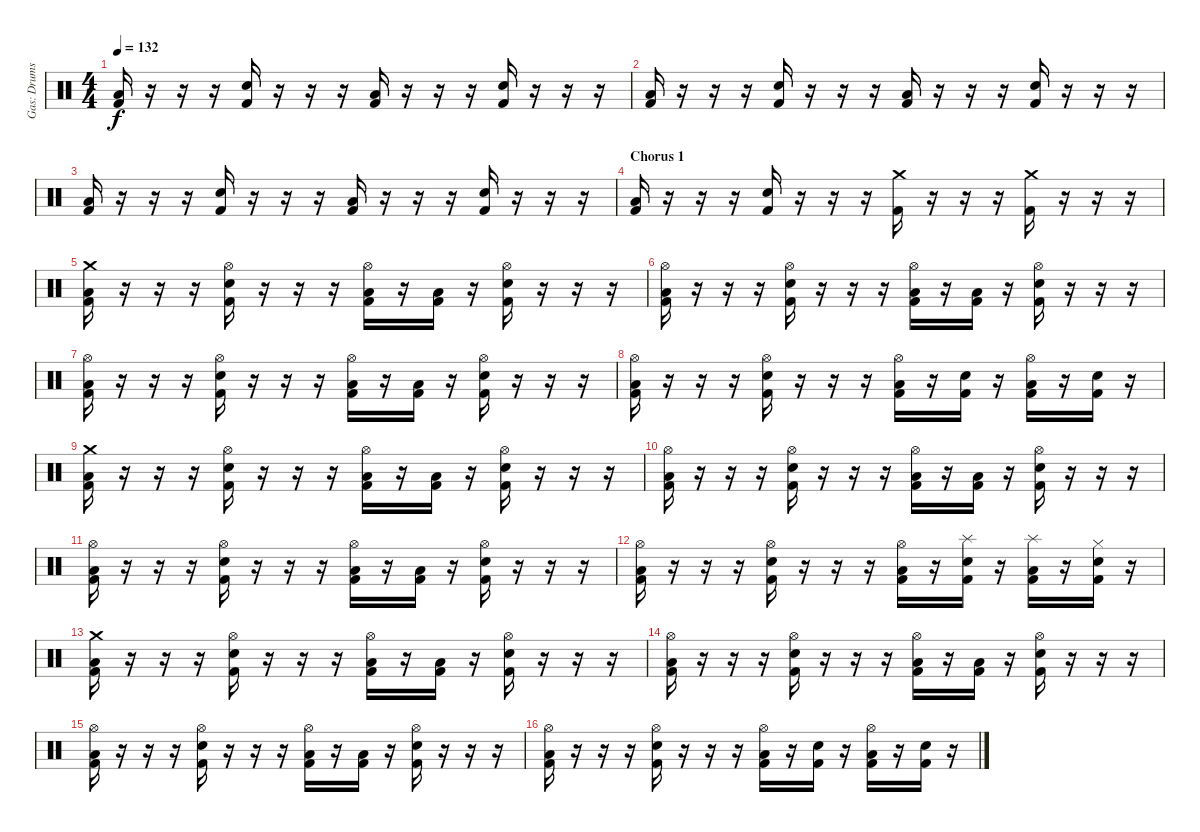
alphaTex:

\track ("Gas: Drums" "Gas: Drums") {instrument percussion}
\staff {score}
\articulation defaults
\ts (4 4)
\tempo 132
\clef neutral
\ks c
("Low Tom (hit)" "Kick (hit) 2").16{dy f} r.16 r.16 r.16 ("Electric Snare (hit)" "Kick (hit) 2").16 r.16 r.16 r.16 ("Low Tom (hit)" "Kick (hit) 2").16 r.16 r.16 r.16 ("Electric Snare (hit)" "Kick (hit) 2").16 r.16 r.16 r.16 |
("Low Tom (hit)" "Kick (hit) 2").16 r.16 r.16 r.16 ("Electric Snare (hit)" "Kick (hit) 2").16 r.16 r.16 r.16 ("Low Tom (hit)" "Kick (hit) 2").16 r.16 r.16 r.16 ("Electric Snare (hit)" "Kick (hit) 2").16 r.16 r.16 r.16 |
("Low Tom (hit)" "Kick (hit) 2").16 r.16 r.16 r.16 ("Electric Snare (hit)" "Kick (hit) 2").16 r.16 r.16 r.16 ("Low Tom (hit)" "Kick (hit) 2").16 r.16 r.16 r.16 ("Electric Snare (hit)" "Kick (hit) 2").16 r.16 r.16 r.16 |
\section ("" "Chorus 1")
("Low Tom (hit)" "Kick (hit) 2").16 r.16 r.16 r.16 ("Electric Snare (hit)" "Kick (hit) 2").16 r.16 r.16 r.16 ("Crash medium (hit)" "Kick (hit) 2").16 r.16 r.16 r.16 ("Crash medium (hit)" "Kick (hit) 2").16 r.16 r.16 r.16 |
("Crash medium (hit)" "Low Tom (hit)" "Kick (hit) 2").16 r.16 r.16 r.16 ("Hi-Hat (open)" "Electric Snare (hit)" "Kick (hit) 2").16 r.16 r.16 r.16 ("Hi-Hat (open)" "Low Tom (hit)" "Kick (hit) 2").16 r.16 ("Low Tom (hit)" "Kick (hit) 2").16 r.16 ("Hi-Hat (open)" "Electric Snare (hit)" "Kick (hit) 2").16 r.16 r.16 r.16 |
("Hi-Hat (open)" "Low Tom (hit)" "Kick (hit) 2").16 r.16 r.16 r.16 ("Hi-Hat (open)" "Electric Snare (hit)" "Kick (hit) 2").16 r.16 r.16 r.16 ("Hi-Hat (open)" "Low Tom (hit)" "Kick (hit) 2").16 r.16 ("Low Tom (hit)" "Kick (hit) 2").16 r.16 ("Hi-Hat (open)" "Electric Snare (hit)" "Kick (hit) 2").16 r.16 r.16 r.16 |
("Hi-Hat (open)" "Low Tom (hit)" "Kick (hit) 2").16 r.16 r.16 r.16 ("Hi-Hat (open)" "Electric Snare (hit)" "Kick (hit) 2").16 r.16 r.16 r.16 ("Hi-Hat (open)" "Low Tom (hit)" "Kick (hit) 2").16 r.16 ("Low Tom (hit)" "Kick (hit) 2").16 r.16 ("Hi-Hat (open)" "Electric Snare (hit)" "Kick (hit) 2").16 r.16 r.16 r.16 |
("Hi-Hat (open)" "Low Tom (hit)" "Kick (hit) 2").16 r.16 r.16 r.16 ("Hi-Hat (open)" "Electric Snare (hit)" "Kick (hit) 2").16 r.16 r.16 r.16 ("Hi-Hat (open)" "Low Tom (hit)" "Kick (hit) 2").16 r.16 ("Electric Snare (hit)" "Kick (hit) 2").16 r.16 ("Hi-Hat (open)" "Low Tom (hit)" "Kick (hit) 2").16 r.16 ("Electric Snare (hit)" "Kick (hit) 2").16 r.16 |
("Crash medium (hit)" "Low Tom (hit)" "Kick (hit) 2").16 r.16 r.16 r.16 ("Hi-Hat (open)" "Electric Snare (hit)" "Kick (hit) 2").16 r.16 r.16 r.16 ("Hi-Hat (open)" "Low Tom (hit)" "Kick (hit) 2").16 r.16 ("Low Tom (hit)" "Kick (hit) 2").16 r.16 ("Hi-Hat (open)" "Electric Snare (hit)" "Kick (hit) 2").16 r.16 r.16 r.16 |
("Hi-Hat (open)" "Low Tom (hit)" "Kick (hit) 2").16 r.16 r.16 r.16 ("Hi-Hat (open)" "Electric Snare (hit)" "Kick (hit) 2").16 r.16 r.16 r.16 ("Hi-Hat (open)" "Low Tom (hit)" "Kick (hit) 2").16 r.16 ("Low Tom (hit)" "Kick (hit) 2").16 r.16 ("Hi-Hat (open)" "Electric Snare (hit)" "Kick (hit) 2").16 r.16 r.16 r.16 |
("Hi-Hat (open)" "Low Tom (hit)" "Kick (hit) 2").16 r.16 r.16 r.16 ("Hi-Hat (open)" "Electric Snare (hit)" "Kick (hit) 2").16 r.16 r.16 r.16 ("Hi-Hat (open)" "Low Tom (hit)" "Kick (hit) 2").16 r.16 ("Low Tom (hit)" "Kick (hit) 2").16 r.16 ("Hi-Hat (open)" "Electric Snare (hit)" "Kick (hit) 2").16 r.16 r.16 r.16 |
("Hi-Hat (open)" "Low Tom (hit)" "Kick (hit) 2").16 r.16 r.16 r.16 ("Hi-Hat (open)" "Electric Snare (hit)" "Kick (hit) 2").16 r.16 r.16 r.16 ("Hi-Hat (open)" "Low Tom (hit)" "Kick (hit) 2").16 r.16 ("Splash (hit)" "Electric Snare (hit)" "Kick (hit) 2").16 r.16 ("Splash (hit)" "Low Tom (hit)" "Kick (hit) 2").16 r.16 ("Hi-Hat (closed)" "Electric Snare (hit)" "Kick (hit) 2").16 r.16 |
("Crash medium (hit)" "Low Tom (hit)" "Kick (hit) 2").16 r.16 r.16 r.16 ("Hi-Hat (open)" "Electric Snare (hit)" "Kick (hit) 2").16 r.16 r.16 r.16 ("Hi-Hat (open)" "Low Tom (hit)" "Kick (hit) 2").16 r.16 ("Low Tom (hit)" "Kick (hit) 2").16 r.16 ("Hi-Hat (open)" "Electric Snare (hit)" "Kick (hit) 2").16 r.16 r.16 r.16 |
("Hi-Hat (open)" "Low Tom (hit)" "Kick (hit) 2").16 r.16 r.16 r.16 ("Hi-Hat (open)" "Electric Snare (hit)" "Kick (hit) 2").16 r.16 r.16 r.16 ("Hi-Hat (open)" "Low Tom (hit)" "Kick (hit) 2").16 r.16 ("Low Tom (hit)" "Kick (hit) 2").16 r.16 ("Hi-Hat (open)" "Electric Snare (hit)" "Kick (hit) 2").16 r.16 r.16 r.16 |
("Hi-Hat (open)" "Low Tom (hit)" "Kick (hit) 2").16 r.16 r.16 r.16 ("Hi-Hat (open)" "Electric Snare (hit)" "Kick (hit) 2").16 r.16 r.16 r.16 ("Hi-Hat (open)" "Low Tom (hit)" "Kick (hit) 2").16 r.16 ("Low Tom (hit)" "Kick (hit) 2").16 r.16 ("Hi-Hat (open)" "Electric Snare (hit)" "Kick (hit) 2").16 r.16 r.16 r.16 |
("Hi-Hat (open)" "Low Tom (hit)" "Kick (hit) 2").16 r.16 r.16 r.16 ("Hi-Hat (open)" "Electric Snare (hit)" "Kick (hit) 2").16 r.16 r.16 r.16 ("Hi-Hat (open)" "Low Tom (hit)" "Kick (hit) 2").16 r.16 ("Electric Snare (hit)" "Kick (hit) 2").16 r.16 ("Hi-Hat (open)" "Low Tom (hit)" "Kick (hit) 2").16 r.16 ("Electric Snare (hit)" "Kick (hit) 2").16 r.16
